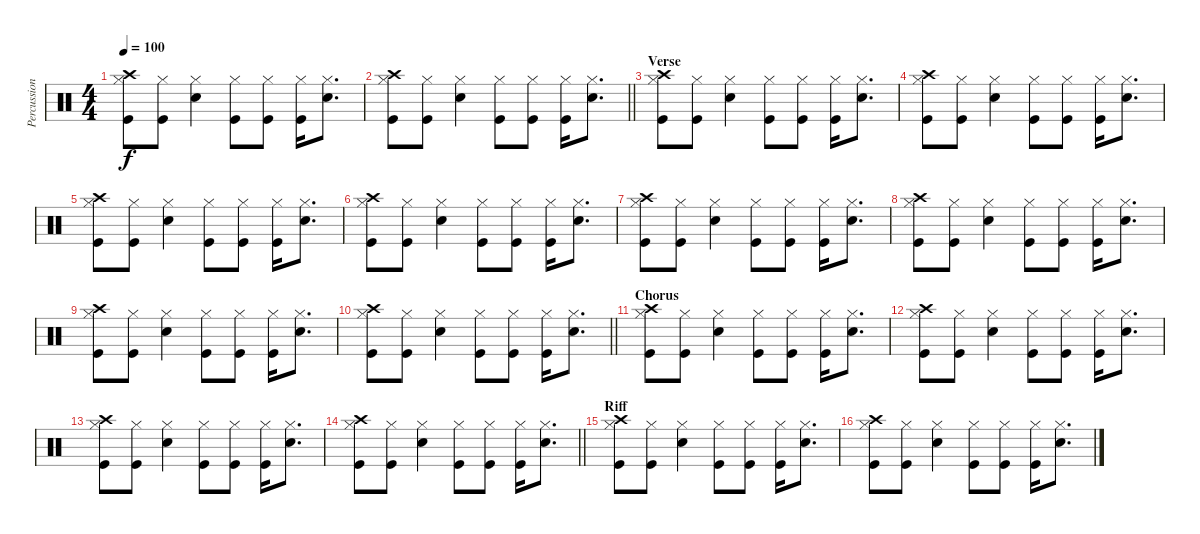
\track ("Percussion" "Percussion") {instrument percussion}
\staff {score}
\articulation defaults
\ts (4 4)
\tempo 100
\clef neutral
\ks c
("Crash high (hit)" "Kick (hit)" "Hi-Hat (closed)").8{dy f} ("Kick (hit)" "Hi-Hat (closed)").8 ("Snare (hit) 2" "Hi-Hat (closed)").4 ("Kick (hit)" "Hi-Hat (closed)").8 ("Kick (hit)" "Hi-Hat (closed)").8 ("Kick (hit)" "Hi-Hat (closed)").16 ("Snare (hit) 2" "Hi-Hat (closed)").8{d} |
\barLineRight lightlight
("Crash high (hit)" "Kick (hit)" "Hi-Hat (closed)").8 ("Kick (hit)" "Hi-Hat (closed)").8 ("Snare (hit) 2" "Hi-Hat (closed)").4 ("Kick (hit)" "Hi-Hat (closed)").8 ("Kick (hit)" "Hi-Hat (closed)").8 ("Kick (hit)" "Hi-Hat (closed)").16 ("Snare (hit) 2" "Hi-Hat (closed)").8{d} |
\section ("" "Verse")
("Crash high (hit)" "Kick (hit)" "Hi-Hat (closed)").8 ("Kick (hit)" "Hi-Hat (closed)").8 ("Snare (hit) 2" "Hi-Hat (closed)").4 ("Kick (hit)" "Hi-Hat (closed)").8 ("Kick (hit)" "Hi-Hat (closed)").8 ("Kick (hit)" "Hi-Hat (closed)").16 ("Snare (hit) 2" "Hi-Hat (closed)").8{d} |
("Crash high (hit)" "Kick (hit)" "Hi-Hat (closed)").8 ("Kick (hit)" "Hi-Hat (closed)").8 ("Snare (hit) 2" "Hi-Hat (closed)").4 ("Kick (hit)" "Hi-Hat (closed)").8 ("Kick (hit)" "Hi-Hat (closed)").8 ("Kick (hit)" "Hi-Hat (closed)").16 ("Snare (hit) 2" "Hi-Hat (closed)").8{d} |
("Crash high (hit)" "Kick (hit)" "Hi-Hat (closed)").8 ("Kick (hit)" "Hi-Hat (closed)").8 ("Snare (hit) 2" "Hi-Hat (closed)").4 ("Kick (hit)" "Hi-Hat (closed)").8 ("Kick (hit)" "Hi-Hat (closed)").8 ("Kick (hit)" "Hi-Hat (closed)").16 ("Snare (hit) 2" "Hi-Hat (closed)").8{d} |
("Crash high (hit)" "Kick (hit)" "Hi-Hat (closed)").8 ("Kick (hit)" "Hi-Hat (closed)").8 ("Snare (hit) 2" "Hi-Hat (closed)").4 ("Kick (hit)" "Hi-Hat (closed)").8 ("Kick (hit)" "Hi-Hat (closed)").8 ("Kick (hit)" "Hi-Hat (closed)").16 ("Snare (hit) 2" "Hi-Hat (closed)").8{d} |
("Crash high (hit)" "Kick (hit)" "Hi-Hat (closed)").8 ("Kick (hit)" "Hi-Hat (closed)").8 ("Snare (hit) 2" "Hi-Hat (closed)").4 ("Kick (hit)" "Hi-Hat (closed)").8 ("Kick (hit)" "Hi-Hat (closed)").8 ("Kick (hit)" "Hi-Hat (closed)").16 ("Snare (hit) 2" "Hi-Hat (closed)").8{d} |
("Crash high (hit)" "Kick (hit)" "Hi-Hat (closed)").8 ("Kick (hit)" "Hi-Hat (closed)").8 ("Snare (hit) 2" "Hi-Hat (closed)").4 ("Kick (hit)" "Hi-Hat (closed)").8 ("Kick (hit)" "Hi-Hat (closed)").8 ("Kick (hit)" "Hi-Hat (closed)").16 ("Snare (hit) 2" "Hi-Hat (closed)").8{d} |
("Crash high (hit)" "Kick (hit)" "Hi-Hat (closed)").8 ("Kick (hit)" "Hi-Hat (closed)").8 ("Snare (hit) 2" "Hi-Hat (closed)").4 ("Kick (hit)" "Hi-Hat (closed)").8 ("Kick (hit)" "Hi-Hat (closed)").8 ("Kick (hit)" "Hi-Hat (closed)").16 ("Snare (hit) 2" "Hi-Hat (closed)").8{d} |
\barLineRight lightlight
("Crash high (hit)" "Kick (hit)" "Hi-Hat (closed)").8 ("Kick (hit)" "Hi-Hat (closed)").8 ("Snare (hit) 2" "Hi-Hat (closed)").4 ("Kick (hit)" "Hi-Hat (closed)").8 ("Kick (hit)" "Hi-Hat (closed)").8 ("Kick (hit)" "Hi-Hat (closed)").16 ("Snare (hit) 2" "Hi-Hat (closed)").8{d} |
\section ("" "Chorus")
("Crash high (hit)" "Kick (hit)" "Hi-Hat (closed)").8 ("Kick (hit)" "Hi-Hat (closed)").8 ("Snare (hit) 2" "Hi-Hat (closed)").4 ("Kick (hit)" "Hi-Hat (closed)").8 ("Kick (hit)" "Hi-Hat (closed)").8 ("Kick (hit)" "Hi-Hat (closed)").16 ("Snare (hit) 2" "Hi-Hat (closed)").8{d} |
("Crash high (hit)" "Kick (hit)" "Hi-Hat (closed)").8 ("Kick (hit)" "Hi-Hat (closed)").8 ("Snare (hit) 2" "Hi-Hat (closed)").4 ("Kick (hit)" "Hi-Hat (closed)").8 ("Kick (hit)" "Hi-Hat (closed)").8 ("Kick (hit)" "Hi-Hat (closed)").16 ("Snare (hit) 2" "Hi-Hat (closed)").8{d} |
("Crash high (hit)" "Kick (hit)" "Hi-Hat (closed)").8 ("Kick (hit)" "Hi-Hat (closed)").8 ("Snare (hit) 2" "Hi-Hat (closed)").4 ("Kick (hit)" "Hi-Hat (closed)").8 ("Kick (hit)" "Hi-Hat (closed)").8 ("Kick (hit)" "Hi-Hat (closed)").16 ("Snare (hit) 2" "Hi-Hat (closed)").8{d} |
\barLineRight lightlight
("Crash high (hit)" "Kick (hit)" "Hi-Hat (closed)").8 ("Kick (hit)" "Hi-Hat (closed)").8 ("Snare (hit) 2" "Hi-Hat (closed)").4 ("Kick (hit)" "Hi-Hat (closed)").8 ("Kick (hit)" "Hi-Hat (closed)").8 ("Kick (hit)" "Hi-Hat (closed)").16 ("Snare (hit) 2" "Hi-Hat (closed)").8{d} |
\section ("" "Riff")
("Crash high (hit)" "Kick (hit)" "Hi-Hat (closed)").8 ("Kick (hit)" "Hi-Hat (closed)").8 ("Snare (hit) 2" "Hi-Hat (closed)").4 ("Kick (hit)" "Hi-Hat (closed)").8 ("Kick (hit)" "Hi-Hat (closed)").8 ("Kick (hit)" "Hi-Hat (closed)").16 ("Snare (hit) 2" "Hi-Hat (closed)").8{d} |
("Crash high (hit)" "Kick (hit)" "Hi-Hat (closed)").8 ("Kick (hit)" "Hi-Hat (closed)").8 ("Snare (hit) 2" "Hi-Hat (closed)").4 ("Kick (hit)" "Hi-Hat (closed)").8 ("Kick (hit)" "Hi-Hat (closed)").8 ("Kick (hit)" "Hi-Hat (closed)").16 ("Snare (hit) 2" "Hi-Hat (closed)").8{d}
